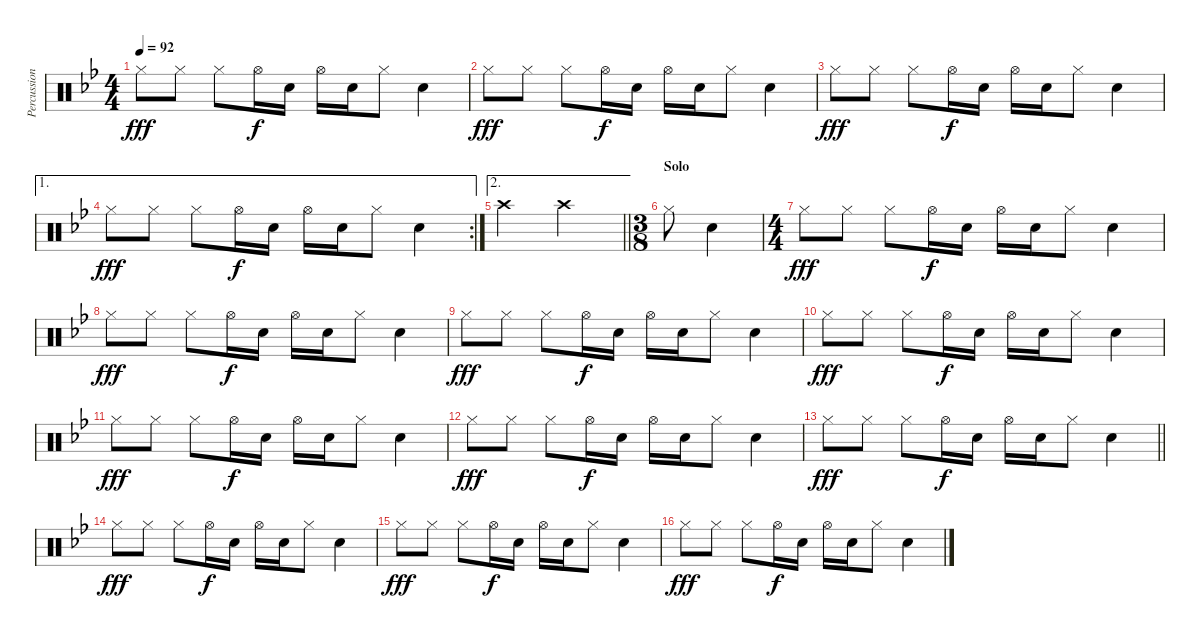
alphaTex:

\track ("Percussion" "Percussion") {instrument percussion}
\staff {score}
\articulation defaults
\ts (4 4)
\tempo 92
\clef neutral
\ks bb "Hi-Hat (closed)".8{dy fff} "Hi-Hat (closed)".8 "Hi-Hat (closed)".8 "Hi-Hat (open)".16{dy f} "Snare (hit) 2".16 "Hi-Hat (open)".16 "Snare (hit) 2".16 "Hi-Hat (closed)".8 "Snare (hit) 2".4
|
"Hi-Hat (closed)".8{dy fff} "Hi-Hat (closed)".8 "Hi-Hat (closed)".8 "Hi-Hat (open)".16{dy f} "Snare (hit) 2".16 "Hi-Hat (open)".16 "Snare (hit) 2".16 "Hi-Hat (closed)".8 "Snare (hit) 2".4 |
"Hi-Hat (closed)".8{dy fff} "Hi-Hat (closed)".8 "Hi-Hat (closed)".8 "Hi-Hat (open)".16{dy f} "Snare (hit) 2".16 "Hi-Hat (open)".16 "Snare (hit) 2".16 "Hi-Hat (closed)".8 "Snare (hit) 2".4 |
\ae 1
\rc 2 "Hi-Hat (closed)".8{dy fff} "Hi-Hat (closed)".8 "Hi-Hat (closed)".8 "Hi-Hat (open)".16{dy f} "Snare (hit) 2".16 "Hi-Hat (open)".16 "Snare (hit) 2".16 "Hi-Hat (closed)".8 "Snare (hit) 2".4
|
\ae 2
\barLineRight lightlight "Crash high (hit)".2 "Crash high (hit)".2
|
\ts (3 8)
\section ("" "Solo")
"Hi-Hat (closed)".8 "Snare (hit) 2".4 |
\ts (4 4)
"Hi-Hat (closed)".8{dy fff} "Hi-Hat (closed)".8 "Hi-Hat (closed)".8 "Hi-Hat (open)".16{dy f} "Snare (hit) 2".16 "Hi-Hat (open)".16 "Snare (hit) 2".16 "Hi-Hat (closed)".8 "Snare (hit) 2".4 |
"Hi-Hat (closed)".8{dy fff} "Hi-Hat (closed)".8 "Hi-Hat (closed)".8 "Hi-Hat (open)".16{dy f} "Snare (hit) 2".16 "Hi-Hat (open)".16 "Snare (hit) 2".16 "Hi-Hat (closed)".8 "Snare (hit) 2".4 |
"Hi-Hat (closed)".8{dy fff} "Hi-Hat (closed)".8 "Hi-Hat (closed)".8 "Hi-Hat (open)".16{dy f} "Snare (hit) 2".16 "Hi-Hat (open)".16 "Snare (hit) 2".16 "Hi-Hat (closed)".8 "Snare (hit) 2".4 |
"Hi-Hat (closed)".8{dy fff} "Hi-Hat (closed)".8 "Hi-Hat (closed)".8 "Hi-Hat (open)".16{dy f} "Snare (hit) 2".16 "Hi-Hat (open)".16 "Snare (hit) 2".16 "Hi-Hat (closed)".8 "Snare (hit) 2".4 |
"Hi-Hat (closed)".8{dy fff} "Hi-Hat (closed)".8 "Hi-Hat (closed)".8 "Hi-Hat (open)".16{dy f} "Snare (hit) 2".16 "Hi-Hat (open)".16 "Snare (hit) 2".16 "Hi-Hat (closed)".8 "Snare (hit) 2".4 |
"Hi-Hat (closed)".8{dy fff} "Hi-Hat (closed)".8 "Hi-Hat (closed)".8 "Hi-Hat (open)".16{dy f} "Snare (hit) 2".16 "Hi-Hat (open)".16 "Snare (hit) 2".16 "Hi-Hat (closed)".8 "Snare (hit) 2".4 |
\barLineRight lightlight "Hi-Hat (closed)".8{dy fff} "Hi-Hat (closed)".8 "Hi-Hat (closed)".8 "Hi-Hat (open)".16{dy f} "Snare (hit) 2".16 "Hi-Hat (open)".16 "Snare (hit) 2".16 "Hi-Hat (closed)".8 "Snare (hit) 2".4
|
"Hi-Hat (closed)".8{dy fff} "Hi-Hat (closed)".8 "Hi-Hat (closed)".8 "Hi-Hat (open)".16{dy f} "Snare (hit) 2".16 "Hi-Hat (open)".16 "Snare (hit) 2".16 "Hi-Hat (closed)".8 "Snare (hit) 2".4 |
"Hi-Hat (closed)".8{dy fff} "Hi-Hat (closed)".8 "Hi-Hat (closed)".8 "Hi-Hat (open)".16{dy f} "Snare (hit) 2".16 "Hi-Hat (open)".16 "Snare (hit) 2".16 "Hi-Hat (closed)".8 "Snare (hit) 2".4 |
"Hi-Hat (closed)".8{dy fff} "Hi-Hat (closed)".8 "Hi-Hat (closed)".8 "Hi-Hat (open)".16{dy f} "Snare (hit) 2".16 "Hi-Hat (open)".16 "Snare (hit) 2".16 "Hi-Hat (closed)".8 "Snare (hit) 2".4
